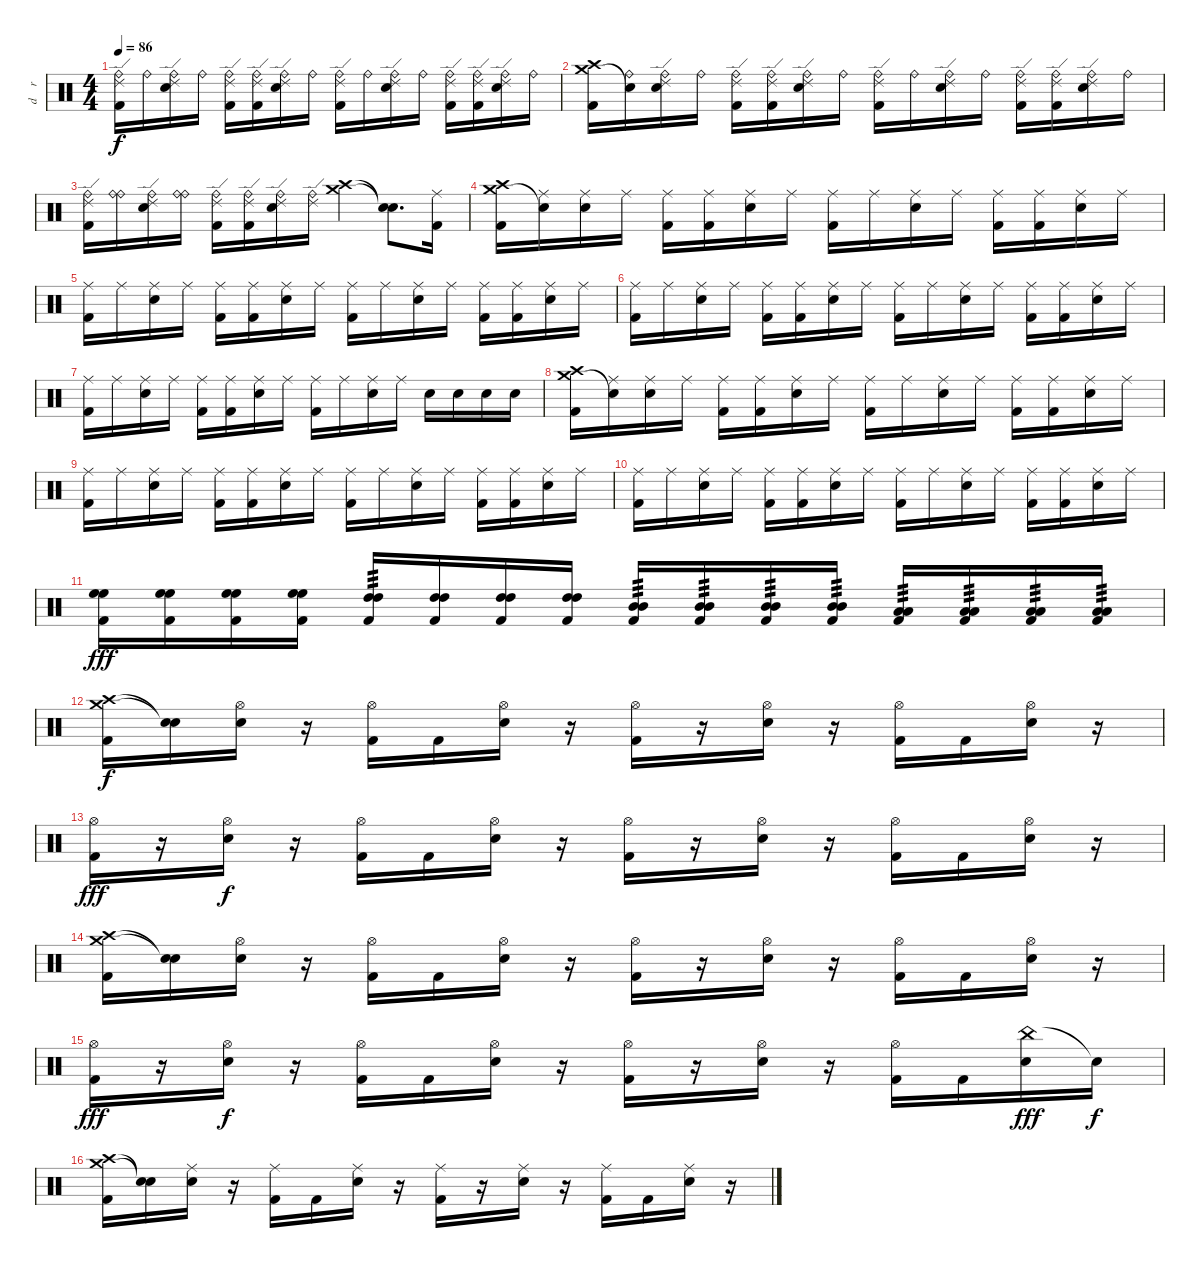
\track ("d    r     u    m    s" "d    r    ") {instrument percussion}
\staff {score}
\articulation defaults
\ts (4 4)
\tempo 86
\clef neutral
\ks c
("Ride (bell)" "Ride (edge) 2" "Kick (hit) 2").16{dy f} "Ride (bell)".16 ("Ride (bell)" "Ride (edge) 2" "Electric Snare (hit)").16 "Ride (bell)".16 ("Ride (bell)" "Ride (edge) 2" "Kick (hit) 2").16 ("Ride (bell)" "Ride (edge) 2" "Kick (hit) 2").16 ("Ride (bell)" "Ride (edge) 2" "Electric Snare (hit)").16 "Ride (bell)".16 ("Ride (bell)" "Ride (edge) 2" "Kick (hit) 2").16 "Ride (bell)".16 ("Ride (bell)" "Ride (edge) 2" "Electric Snare (hit)").16 "Ride (bell)".16 ("Ride (bell)" "Ride (edge) 2" "Kick (hit) 2").16 ("Ride (bell)" "Ride (edge) 2" "Kick (hit) 2").16 ("Ride (bell)" "Ride (edge) 2" "Electric Snare (hit)").16 "Ride (bell)".16 |
("Crash high (hit)" "Crash medium (hit)" "Kick (hit) 2").16 ("Ride (bell)" "Snare (hit)"{t}).16 ("Ride (bell)" "Ride (edge) 2" "Electric Snare (hit)").16 "Ride (bell)".16 ("Ride (bell)" "Ride (edge) 2" "Kick (hit) 2").16 ("Ride (bell)" "Ride (edge) 2" "Kick (hit) 2").16 ("Ride (bell)" "Ride (edge) 2" "Electric Snare (hit)").16 "Ride (bell)".16 ("Ride (bell)" "Ride (edge) 2" "Kick (hit) 2").16 "Ride (bell)".16 ("Ride (bell)" "Ride (edge) 2" "Electric Snare (hit)").16 "Ride (bell)".16 ("Ride (bell)" "Ride (edge) 2" "Kick (hit) 2").16 ("Ride (bell)" "Ride (edge) 2" "Kick (hit) 2").16 ("Ride (bell)" "Ride (edge) 2" "Electric Snare (hit)").16 "Ride (bell)".16 |
("Ride (bell)" "Ride (edge) 2" "Kick (hit) 2").16 ("Ride (bell)" "Ride (bell)").16 ("Ride (bell)" "Ride (edge) 2" "Snare (hit) 2").16 ("Ride (bell)" "Ride (bell)").16 ("Ride (bell)" "Ride (edge) 2" "Kick (hit) 2").16 ("Ride (bell)" "Ride (edge) 2" "Kick (hit) 2").16 ("Ride (bell)" "Ride (edge) 2" "Snare (hit) 2").16 ("Ride (bell)" "Ride (edge) 2").16 ("Crash high (hit)" "Crash medium (hit)").4 ("Snare (hit)"{t} "Snare (hit)"{t}).8{d} ("Ride (middle)" "Kick (hit) 2").16 |
("Crash high (hit)" "Crash medium (hit)" "Kick (hit) 2").16 ("Ride (middle)" "Snare (hit)"{t}).16 ("Ride (middle)" "Electric Snare (hit)").16 "Ride (middle)".16 ("Ride (middle)" "Kick (hit) 2").16 ("Ride (middle)" "Kick (hit) 2").16 ("Ride (middle)" "Electric Snare (hit)").16 "Ride (middle)".16 ("Ride (middle)" "Kick (hit) 2").16 "Ride (middle)".16 ("Ride (middle)" "Electric Snare (hit)").16 "Ride (middle)".16 ("Ride (middle)" "Kick (hit) 2").16 ("Ride (middle)" "Kick (hit) 2").16 ("Ride (middle)" "Electric Snare (hit)").16 "Ride (middle)".16 |
("Ride (middle)" "Kick (hit) 2").16 "Ride (middle)".16 ("Ride (middle)" "Electric Snare (hit)").16 "Ride (middle)".16 ("Ride (middle)" "Kick (hit) 2").16 ("Ride (middle)" "Kick (hit) 2").16 ("Ride (middle)" "Electric Snare (hit)").16 "Ride (middle)".16 ("Ride (middle)" "Kick (hit) 2").16 "Ride (middle)".16 ("Ride (middle)" "Electric Snare (hit)").16 "Ride (middle)".16 ("Ride (middle)" "Kick (hit) 2").16 ("Ride (middle)" "Kick (hit) 2").16 ("Ride (middle)" "Electric Snare (hit)").16 "Ride (middle)".16 |
("Ride (middle)" "Kick (hit) 2").16 "Ride (middle)".16 ("Ride (middle)" "Electric Snare (hit)").16 "Ride (middle)".16 ("Ride (middle)" "Kick (hit) 2").16 ("Ride (middle)" "Kick (hit) 2").16 ("Ride (middle)" "Electric Snare (hit)").16 "Ride (middle)".16 ("Ride (middle)" "Kick (hit) 2").16 "Ride (middle)".16 ("Ride (middle)" "Electric Snare (hit)").16 "Ride (middle)".16 ("Ride (middle)" "Kick (hit) 2").16 ("Ride (middle)" "Kick (hit) 2").16 ("Ride (middle)" "Electric Snare (hit)").16 "Ride (middle)".16 |
("Ride (middle)" "Kick (hit) 2").16 "Ride (middle)".16 ("Ride (middle)" "Electric Snare (hit)").16 "Ride (middle)".16 ("Ride (middle)" "Kick (hit) 2").16 ("Ride (middle)" "Kick (hit) 2").16 ("Ride (middle)" "Electric Snare (hit)").16 "Ride (middle)".16 ("Ride (middle)" "Kick (hit) 2").16 "Ride (middle)".16 ("Ride (middle)" "Electric Snare (hit)").16 "Ride (middle)".16 "Electric Snare (hit)".16 "Electric Snare (hit)".16 "Electric Snare (hit)".16 "Electric Snare (hit)".16 |
("Crash high (hit)" "Crash medium (hit)" "Kick (hit) 2").16 ("Ride (middle)" "Snare (hit)"{t}).16 ("Ride (middle)" "Electric Snare (hit)").16 "Ride (middle)".16 ("Ride (middle)" "Kick (hit) 2").16 ("Ride (middle)" "Kick (hit) 2").16 ("Ride (middle)" "Electric Snare (hit)").16 "Ride (middle)".16 ("Ride (middle)" "Kick (hit) 2").16 "Ride (middle)".16 ("Ride (middle)" "Electric Snare (hit)").16 "Ride (middle)".16 ("Ride (middle)" "Kick (hit) 2").16 ("Ride (middle)" "Kick (hit) 2").16 ("Ride (middle)" "Electric Snare (hit)").16 "Ride (middle)".16 |
("Ride (middle)" "Kick (hit) 2").16 "Ride (middle)".16 ("Ride (middle)" "Electric Snare (hit)").16 "Ride (middle)".16 ("Ride (middle)" "Kick (hit) 2").16 ("Ride (middle)" "Kick (hit) 2").16 ("Ride (middle)" "Electric Snare (hit)").16 "Ride (middle)".16 ("Ride (middle)" "Kick (hit) 2").16 "Ride (middle)".16 ("Ride (middle)" "Electric Snare (hit)").16 "Ride (middle)".16 ("Ride (middle)" "Kick (hit) 2").16 ("Ride (middle)" "Kick (hit) 2").16 ("Ride (middle)" "Electric Snare (hit)").16 "Ride (middle)".16 |
("Ride (middle)" "Kick (hit) 2").16 "Ride (middle)".16 ("Ride (middle)" "Electric Snare (hit)").16 "Ride (middle)".16 ("Ride (middle)" "Kick (hit) 2").16 ("Ride (middle)" "Kick (hit) 2").16 ("Ride (middle)" "Electric Snare (hit)").16 "Ride (middle)".16 ("Ride (middle)" "Kick (hit) 2").16 "Ride (middle)".16 ("Ride (middle)" "Electric Snare (hit)").16 "Ride (middle)".16 ("Ride (middle)" "Kick (hit) 2").16 ("Ride (middle)" "Kick (hit) 2").16 ("Ride (middle)" "Electric Snare (hit)").16 "Ride (middle)".16 |
("High Floor Tom (hit)" "High Floor Tom (hit)" "Kick (hit) 2").16{dy fff} ("High Floor Tom (hit)" "High Floor Tom (hit)" "Kick (hit) 2").16 ("High Floor Tom (hit)" "High Floor Tom (hit)" "Kick (hit) 2").16 ("High Floor Tom (hit)" "High Floor Tom (hit)" "Kick (hit) 2").16 ("High Tom (hit)" "High Tom (hit)" "Kick (hit) 2").16{tp 3} ("High Tom (hit)" "High Tom (hit)" "Kick (hit) 2").16 ("High Tom (hit)" "High Tom (hit)" "Kick (hit) 2").16 ("High Tom (hit)" "High Tom (hit)" "Kick (hit) 2").16 ("Mid Tom (hit)" "Mid Tom (hit)" "Kick (hit) 2").16{tp 3} ("Mid Tom (hit)" "Mid Tom (hit)" "Kick (hit) 2").16{tp 3} ("Mid Tom (hit)" "Mid Tom (hit)" "Kick (hit) 2").16{tp 3} ("Mid Tom (hit)" "Mid Tom (hit)" "Kick (hit) 2").16{tp 3} ("Low Tom (hit)" "Low Tom (hit)" "Kick (hit) 2").16{tp 3} ("Low Tom (hit)" "Low Tom (hit)" "Kick (hit) 2").16{tp 3} ("Low Tom (hit)" "Low Tom (hit)" "Kick (hit) 2").16{tp 3} ("Low Tom (hit)" "Low Tom (hit)" "Kick (hit) 2").16{tp 3} |
("Crash high (hit)" "Crash medium (hit)" "Kick (hit) 2").16{dy f} ("Snare (hit)"{t} "Snare (hit)"{t}).16 ("Hi-Hat (open)" "Electric Snare (hit)").16 r.16 ("Hi-Hat (open)" "Kick (hit) 2").16 "Kick (hit) 2".16 ("Hi-Hat (open)" "Electric Snare (hit)").16 r.16 ("Hi-Hat (open)" "Kick (hit) 2").16 r.16 ("Hi-Hat (open)" "Electric Snare (hit)").16 r.16 ("Hi-Hat (open)" "Kick (hit) 2").16 "Kick (hit) 2".16 ("Hi-Hat (open)" "Electric Snare (hit)").16 r.16 |
("Hi-Hat (open)" "Kick (hit) 2").16{dy fff} r.16 ("Hi-Hat (open)" "Electric Snare (hit)").16{dy f} r.16 ("Hi-Hat (open)" "Kick (hit) 2").16 "Kick (hit) 2".16 ("Hi-Hat (open)" "Electric Snare (hit)").16 r.16 ("Hi-Hat (open)" "Kick (hit) 2").16 r.16 ("Hi-Hat (open)" "Electric Snare (hit)").16 r.16 ("Hi-Hat (open)" "Kick (hit) 2").16 "Kick (hit) 2".16 ("Hi-Hat (open)" "Electric Snare (hit)").16 r.16 |
("Crash high (hit)" "Crash medium (hit)" "Kick (hit) 2").16 ("Snare (hit)"{t} "Snare (hit)"{t}).16 ("Hi-Hat (open)" "Electric Snare (hit)").16 r.16 ("Hi-Hat (open)" "Kick (hit) 2").16 "Kick (hit) 2".16 ("Hi-Hat (open)" "Electric Snare (hit)").16 r.16 ("Hi-Hat (open)" "Kick (hit) 2").16 r.16 ("Hi-Hat (open)" "Electric Snare (hit)").16 r.16 ("Hi-Hat (open)" "Kick (hit) 2").16 "Kick (hit) 2".16 ("Hi-Hat (open)" "Electric Snare (hit)").16 r.16 |
("Hi-Hat (open)" "Kick (hit) 2").16{dy fff} r.16 ("Hi-Hat (open)" "Electric Snare (hit)").16{dy f} r.16 ("Hi-Hat (open)" "Kick (hit) 2").16 "Kick (hit) 2".16 ("Hi-Hat (open)" "Electric Snare (hit)").16 r.16 ("Hi-Hat (open)" "Kick (hit) 2").16 r.16 ("Hi-Hat (open)" "Electric Snare (hit)").16 r.16 ("Hi-Hat (open)" "Kick (hit) 2").16 "Kick (hit) 2".16 ("China (hit)" "Electric Snare (hit)").16{dy fff} "Snare (hit)"{t}.16{dy f} |
("Crash high (hit)" "Crash medium (hit)" "Kick (hit) 2").16 ("Snare (hit)"{t} "Snare (hit)"{t}).16 ("Ride (middle)" "Electric Snare (hit)").16 r.16 ("Ride (middle)" "Kick (hit) 2").16 "Kick (hit) 2".16 ("Ride (middle)" "Electric Snare (hit)").16 r.16 ("Ride (middle)" "Kick (hit) 2").16 r.16 ("Ride (middle)" "Electric Snare (hit)").16 r.16 ("Ride (middle)" "Kick (hit) 2").16 "Kick (hit) 2".16 ("Ride (middle)" "Electric Snare (hit)").16 r.16
